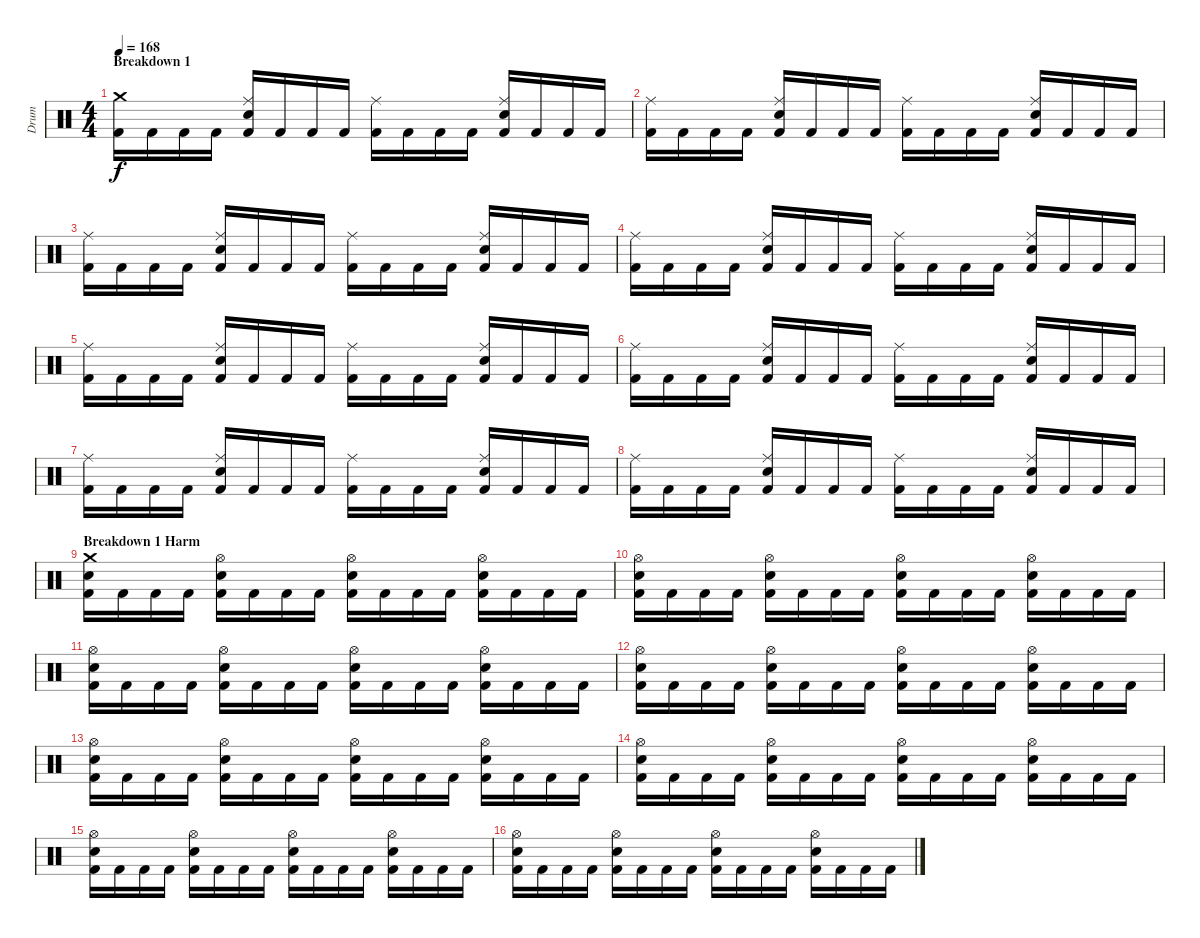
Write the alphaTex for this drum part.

\track ("Drum" "Drum") {instrument percussion}
\staff {score}
\articulation defaults
\ts (4 4)
\section ("" "Breakdown 1")
\tempo 168
\clef neutral
\ks c
("Crash medium (hit)" "Kick (hit) 2").16{dy f} "Kick (hit) 2".16 "Kick (hit) 2".16 "Kick (hit) 2".16 ("Ride (middle)" "Kick (hit) 2" "Electric Snare (hit)").16 "Kick (hit) 2".16 "Kick (hit) 2".16 "Kick (hit) 2".16 ("Ride (middle)" "Kick (hit) 2").16 "Kick (hit) 2".16 "Kick (hit) 2".16 "Kick (hit) 2".16 ("Ride (middle)" "Kick (hit) 2" "Electric Snare (hit)").16 "Kick (hit) 2".16 "Kick (hit) 2".16 "Kick (hit) 2".16 |
("Ride (middle)" "Kick (hit) 2").16 "Kick (hit) 2".16 "Kick (hit) 2".16 "Kick (hit) 2".16 ("Ride (middle)" "Kick (hit) 2" "Electric Snare (hit)").16 "Kick (hit) 2".16 "Kick (hit) 2".16 "Kick (hit) 2".16 ("Ride (middle)" "Kick (hit) 2").16 "Kick (hit) 2".16 "Kick (hit) 2".16 "Kick (hit) 2".16 ("Ride (middle)" "Kick (hit) 2" "Electric Snare (hit)").16 "Kick (hit) 2".16 "Kick (hit) 2".16 "Kick (hit) 2".16 |
("Ride (middle)" "Kick (hit) 2").16 "Kick (hit) 2".16 "Kick (hit) 2".16 "Kick (hit) 2".16 ("Ride (middle)" "Kick (hit) 2" "Electric Snare (hit)").16 "Kick (hit) 2".16 "Kick (hit) 2".16 "Kick (hit) 2".16 ("Ride (middle)" "Kick (hit) 2").16 "Kick (hit) 2".16 "Kick (hit) 2".16 "Kick (hit) 2".16 ("Ride (middle)" "Kick (hit) 2" "Electric Snare (hit)").16 "Kick (hit) 2".16 "Kick (hit) 2".16 "Kick (hit) 2".16 |
("Ride (middle)" "Kick (hit) 2").16 "Kick (hit) 2".16 "Kick (hit) 2".16 "Kick (hit) 2".16 ("Ride (middle)" "Kick (hit) 2" "Electric Snare (hit)").16 "Kick (hit) 2".16 "Kick (hit) 2".16 "Kick (hit) 2".16 ("Ride (middle)" "Kick (hit) 2").16 "Kick (hit) 2".16 "Kick (hit) 2".16 "Kick (hit) 2".16 ("Ride (middle)" "Kick (hit) 2" "Electric Snare (hit)").16 "Kick (hit) 2".16 "Kick (hit) 2".16 "Kick (hit) 2".16 |
("Ride (middle)" "Kick (hit) 2").16 "Kick (hit) 2".16 "Kick (hit) 2".16 "Kick (hit) 2".16 ("Ride (middle)" "Kick (hit) 2" "Electric Snare (hit)").16 "Kick (hit) 2".16 "Kick (hit) 2".16 "Kick (hit) 2".16 ("Ride (middle)" "Kick (hit) 2").16 "Kick (hit) 2".16 "Kick (hit) 2".16 "Kick (hit) 2".16 ("Ride (middle)" "Kick (hit) 2" "Electric Snare (hit)").16 "Kick (hit) 2".16 "Kick (hit) 2".16 "Kick (hit) 2".16 |
("Ride (middle)" "Kick (hit) 2").16 "Kick (hit) 2".16 "Kick (hit) 2".16 "Kick (hit) 2".16 ("Ride (middle)" "Kick (hit) 2" "Electric Snare (hit)").16 "Kick (hit) 2".16 "Kick (hit) 2".16 "Kick (hit) 2".16 ("Ride (middle)" "Kick (hit) 2").16 "Kick (hit) 2".16 "Kick (hit) 2".16 "Kick (hit) 2".16 ("Ride (middle)" "Kick (hit) 2" "Electric Snare (hit)").16 "Kick (hit) 2".16 "Kick (hit) 2".16 "Kick (hit) 2".16 |
("Ride (middle)" "Kick (hit) 2").16 "Kick (hit) 2".16 "Kick (hit) 2".16 "Kick (hit) 2".16 ("Ride (middle)" "Kick (hit) 2" "Electric Snare (hit)").16 "Kick (hit) 2".16 "Kick (hit) 2".16 "Kick (hit) 2".16 ("Ride (middle)" "Kick (hit) 2").16 "Kick (hit) 2".16 "Kick (hit) 2".16 "Kick (hit) 2".16 ("Ride (middle)" "Kick (hit) 2" "Electric Snare (hit)").16 "Kick (hit) 2".16 "Kick (hit) 2".16 "Kick (hit) 2".16 |
("Ride (middle)" "Kick (hit) 2").16 "Kick (hit) 2".16 "Kick (hit) 2".16 "Kick (hit) 2".16 ("Ride (middle)" "Kick (hit) 2" "Electric Snare (hit)").16 "Kick (hit) 2".16 "Kick (hit) 2".16 "Kick (hit) 2".16 ("Ride (middle)" "Kick (hit) 2").16 "Kick (hit) 2".16 "Kick (hit) 2".16 "Kick (hit) 2".16 ("Ride (middle)" "Kick (hit) 2" "Electric Snare (hit)").16 "Kick (hit) 2".16 "Kick (hit) 2".16 "Kick (hit) 2".16 |
\section ("" "Breakdown 1 Harm")
("Crash medium (hit)" "Electric Snare (hit)" "Kick (hit) 2").16 "Kick (hit) 2".16 "Kick (hit) 2".16 "Kick (hit) 2".16 ("Hi-Hat (open)" "Kick (hit) 2" "Electric Snare (hit)").16 "Kick (hit) 2".16 "Kick (hit) 2".16 "Kick (hit) 2".16 ("Hi-Hat (open)" "Electric Snare (hit)" "Kick (hit) 2").16 "Kick (hit) 2".16 "Kick (hit) 2".16 "Kick (hit) 2".16 ("Hi-Hat (open)" "Kick (hit) 2" "Electric Snare (hit)").16 "Kick (hit) 2".16 "Kick (hit) 2".16 "Kick (hit) 2".16 |
("Hi-Hat (open)" "Electric Snare (hit)" "Kick (hit) 2").16 "Kick (hit) 2".16 "Kick (hit) 2".16 "Kick (hit) 2".16 ("Hi-Hat (open)" "Kick (hit) 2" "Electric Snare (hit)").16 "Kick (hit) 2".16 "Kick (hit) 2".16 "Kick (hit) 2".16 ("Hi-Hat (open)" "Electric Snare (hit)" "Kick (hit) 2").16 "Kick (hit) 2".16 "Kick (hit) 2".16 "Kick (hit) 2".16 ("Hi-Hat (open)" "Kick (hit) 2" "Electric Snare (hit)").16 "Kick (hit) 2".16 "Kick (hit) 2".16 "Kick (hit) 2".16 |
("Hi-Hat (open)" "Electric Snare (hit)" "Kick (hit) 2").16 "Kick (hit) 2".16 "Kick (hit) 2".16 "Kick (hit) 2".16 ("Hi-Hat (open)" "Kick (hit) 2" "Electric Snare (hit)").16 "Kick (hit) 2".16 "Kick (hit) 2".16 "Kick (hit) 2".16 ("Hi-Hat (open)" "Electric Snare (hit)" "Kick (hit) 2").16 "Kick (hit) 2".16 "Kick (hit) 2".16 "Kick (hit) 2".16 ("Hi-Hat (open)" "Kick (hit) 2" "Electric Snare (hit)").16 "Kick (hit) 2".16 "Kick (hit) 2".16 "Kick (hit) 2".16 |
("Hi-Hat (open)" "Electric Snare (hit)" "Kick (hit) 2").16 "Kick (hit) 2".16 "Kick (hit) 2".16 "Kick (hit) 2".16 ("Hi-Hat (open)" "Kick (hit) 2" "Electric Snare (hit)").16 "Kick (hit) 2".16 "Kick (hit) 2".16 "Kick (hit) 2".16 ("Hi-Hat (open)" "Electric Snare (hit)" "Kick (hit) 2").16 "Kick (hit) 2".16 "Kick (hit) 2".16 "Kick (hit) 2".16 ("Hi-Hat (open)" "Kick (hit) 2" "Electric Snare (hit)").16 "Kick (hit) 2".16 "Kick (hit) 2".16 "Kick (hit) 2".16 |
("Hi-Hat (open)" "Electric Snare (hit)" "Kick (hit) 2").16 "Kick (hit) 2".16 "Kick (hit) 2".16 "Kick (hit) 2".16 ("Hi-Hat (open)" "Kick (hit) 2" "Electric Snare (hit)").16 "Kick (hit) 2".16 "Kick (hit) 2".16 "Kick (hit) 2".16 ("Hi-Hat (open)" "Electric Snare (hit)" "Kick (hit) 2").16 "Kick (hit) 2".16 "Kick (hit) 2".16 "Kick (hit) 2".16 ("Hi-Hat (open)" "Kick (hit) 2" "Electric Snare (hit)").16 "Kick (hit) 2".16 "Kick (hit) 2".16 "Kick (hit) 2".16 |
("Hi-Hat (open)" "Electric Snare (hit)" "Kick (hit) 2").16 "Kick (hit) 2".16 "Kick (hit) 2".16 "Kick (hit) 2".16 ("Hi-Hat (open)" "Kick (hit) 2" "Electric Snare (hit)").16 "Kick (hit) 2".16 "Kick (hit) 2".16 "Kick (hit) 2".16 ("Hi-Hat (open)" "Electric Snare (hit)" "Kick (hit) 2").16 "Kick (hit) 2".16 "Kick (hit) 2".16 "Kick (hit) 2".16 ("Hi-Hat (open)" "Kick (hit) 2" "Electric Snare (hit)").16 "Kick (hit) 2".16 "Kick (hit) 2".16 "Kick (hit) 2".16 |
("Hi-Hat (open)" "Electric Snare (hit)" "Kick (hit) 2").16 "Kick (hit) 2".16 "Kick (hit) 2".16 "Kick (hit) 2".16 ("Hi-Hat (open)" "Kick (hit) 2" "Electric Snare (hit)").16 "Kick (hit) 2".16 "Kick (hit) 2".16 "Kick (hit) 2".16 ("Hi-Hat (open)" "Electric Snare (hit)" "Kick (hit) 2").16 "Kick (hit) 2".16 "Kick (hit) 2".16 "Kick (hit) 2".16 ("Hi-Hat (open)" "Kick (hit) 2" "Electric Snare (hit)").16 "Kick (hit) 2".16 "Kick (hit) 2".16 "Kick (hit) 2".16 |
("Hi-Hat (open)" "Electric Snare (hit)" "Kick (hit) 2").16 "Kick (hit) 2".16 "Kick (hit) 2".16 "Kick (hit) 2".16 ("Hi-Hat (open)" "Kick (hit) 2" "Electric Snare (hit)").16 "Kick (hit) 2".16 "Kick (hit) 2".16 "Kick (hit) 2".16 ("Hi-Hat (open)" "Electric Snare (hit)" "Kick (hit) 2").16 "Kick (hit) 2".16 "Kick (hit) 2".16 "Kick (hit) 2".16 ("Hi-Hat (open)" "Kick (hit) 2" "Electric Snare (hit)").16 "Kick (hit) 2".16 "Kick (hit) 2".16 "Kick (hit) 2".16
